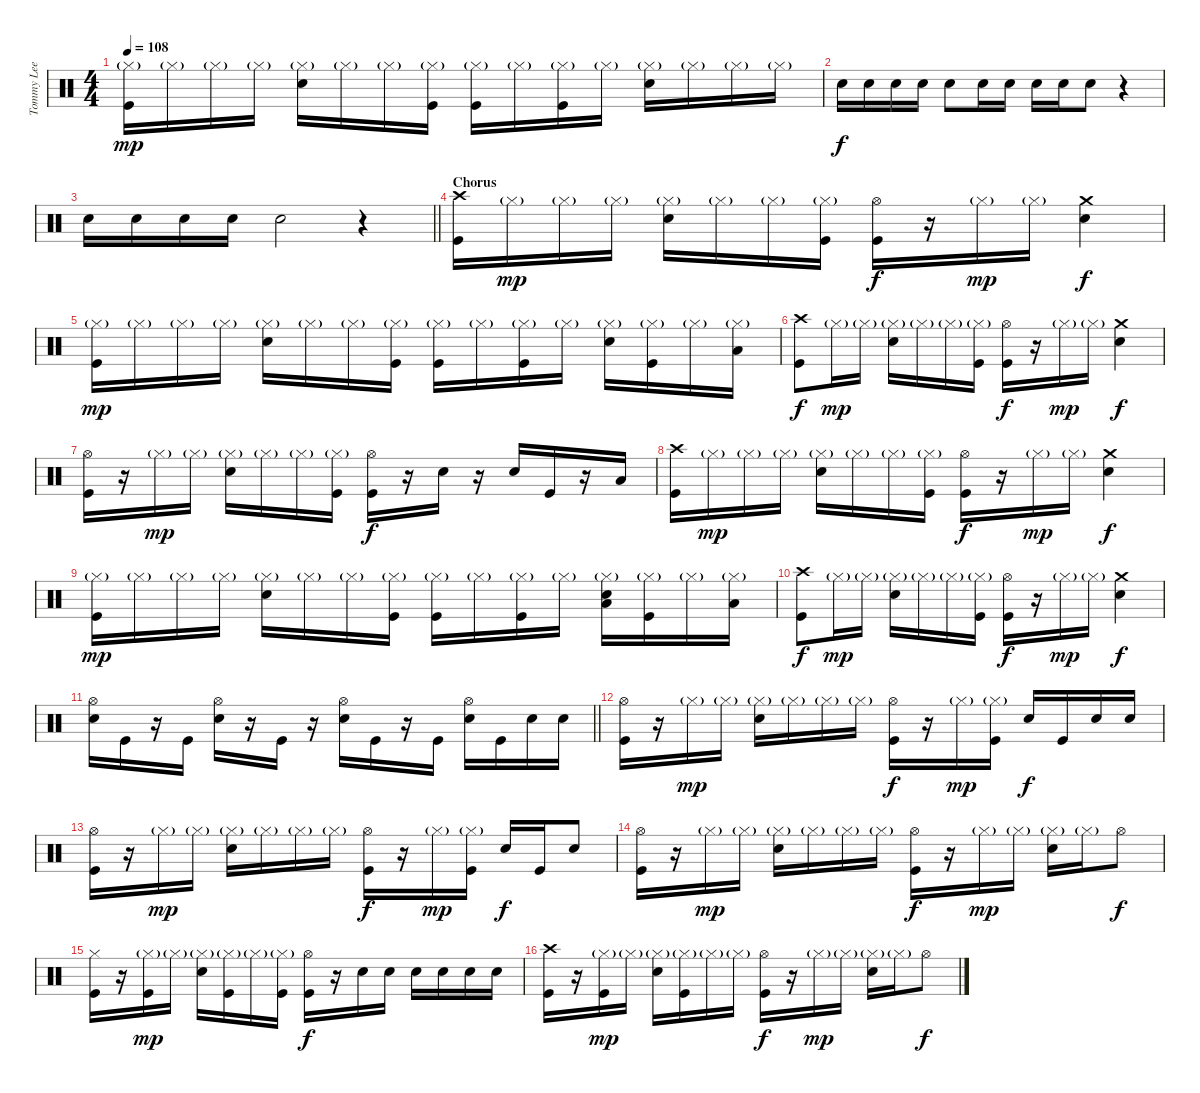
\track ("Tommy Lee" "Tommy Lee") {instrument percussion}
\staff {score}
\articulation defaults
\ts (4 4)
\tempo 108
\clef neutral
\ks c
("Hi-Hat (closed)"{g} "Kick (hit)").16{dy mp} "Hi-Hat (closed)"{g}.16 "Hi-Hat (closed)"{g}.16 "Hi-Hat (closed)"{g}.16 ("Hi-Hat (closed)"{g} "Snare (hit) 2").16 "Hi-Hat (closed)"{g}.16 "Hi-Hat (closed)"{g}.16 ("Hi-Hat (closed)"{g} "Kick (hit)").16 ("Hi-Hat (closed)"{g} "Kick (hit)").16 "Hi-Hat (closed)"{g}.16 ("Hi-Hat (closed)"{g} "Kick (hit)").16 "Hi-Hat (closed)"{g}.16 ("Hi-Hat (closed)"{g} "Snare (hit) 2").16 "Hi-Hat (closed)"{g}.16 "Hi-Hat (closed)"{g}.16 "Hi-Hat (closed)"{g}.16 |
"Snare (hit) 2".16{dy f} "Snare (hit) 2".16 "Snare (hit) 2".16 "Snare (hit) 2".16 "Snare (hit) 2".8 "Snare (hit) 2".16 "Snare (hit) 2".16 "Snare (hit) 2".16 "Snare (hit) 2".16 "Snare (hit) 2".8 r.4 |
\barLineRight lightlight "Snare (hit) 2".16 "Snare (hit) 2".16 "Snare (hit) 2".16 "Snare (hit) 2".16 "Snare (hit) 2".2
r.4 |
\section ("" "Chorus")
("Crash high (hit)" "Kick (hit)").16 "Hi-Hat (closed)"{g}.16{dy mp} "Hi-Hat (closed)"{g}.16 "Hi-Hat (closed)"{g}.16 ("Hi-Hat (closed)"{g} "Snare (hit) 2").16 "Hi-Hat (closed)"{g}.16 "Hi-Hat (closed)"{g}.16 ("Hi-Hat (closed)"{g} "Kick (hit)").16 ("Hi-Hat (open)" "Kick (hit)").16{dy f} r.16 "Hi-Hat (closed)"{g}.16{dy mp} "Hi-Hat (closed)"{g}.16 ("Crash medium (hit)" "Snare (hit) 2").4{dy f} |
("Hi-Hat (closed)"{g} "Kick (hit)").16{dy mp} "Hi-Hat (closed)"{g}.16 "Hi-Hat (closed)"{g}.16 "Hi-Hat (closed)"{g}.16 ("Hi-Hat (closed)"{g} "Snare (hit) 2").16 "Hi-Hat (closed)"{g}.16 "Hi-Hat (closed)"{g}.16 ("Hi-Hat (closed)"{g} "Kick (hit)").16 ("Hi-Hat (closed)"{g} "Kick (hit)").16 "Hi-Hat (closed)"{g}.16 ("Hi-Hat (closed)"{g} "Kick (hit)").16 "Hi-Hat (closed)"{g}.16 ("Hi-Hat (closed)"{g} "Snare (hit) 2").16 ("Hi-Hat (closed)"{g} "Kick (hit)").16 "Hi-Hat (closed)"{g}.16 ("Hi-Hat (closed)"{g} "Low Tom (hit)").16 |
("Crash high (hit)" "Kick (hit)").8{dy f} "Hi-Hat (closed)"{g}.16{dy mp} "Hi-Hat (closed)"{g}.16 ("Hi-Hat (closed)"{g} "Snare (hit) 2").16 "Hi-Hat (closed)"{g}.16 "Hi-Hat (closed)"{g}.16 ("Hi-Hat (closed)"{g} "Kick (hit)").16 ("Hi-Hat (open)" "Kick (hit)").16{dy f} r.16 "Hi-Hat (closed)"{g}.16{dy mp} "Hi-Hat (closed)"{g}.16 ("Crash medium (hit)" "Snare (hit) 2").4{dy f} |
("Hi-Hat (open)" "Kick (hit)").16 r.16 "Hi-Hat (closed)"{g}.16{dy mp} "Hi-Hat (closed)"{g}.16 ("Hi-Hat (closed)"{g} "Snare (hit) 2").16 "Hi-Hat (closed)"{g}.16 "Hi-Hat (closed)"{g}.16 ("Hi-Hat (closed)"{g} "Kick (hit)").16 ("Hi-Hat (open)" "Kick (hit)").16{dy f} r.16 "Snare (hit) 2".16 r.16 "Snare (hit) 2".16 "Kick (hit)".16 r.16 "Low Tom (hit)".16 |
("Crash high (hit)" "Kick (hit)").16 "Hi-Hat (closed)"{g}.16{dy mp} "Hi-Hat (closed)"{g}.16 "Hi-Hat (closed)"{g}.16 ("Hi-Hat (closed)"{g} "Snare (hit) 2").16 "Hi-Hat (closed)"{g}.16 "Hi-Hat (closed)"{g}.16 ("Hi-Hat (closed)"{g} "Kick (hit)").16 ("Hi-Hat (open)" "Kick (hit)").16{dy f} r.16 "Hi-Hat (closed)"{g}.16{dy mp} "Hi-Hat (closed)"{g}.16 ("Crash medium (hit)" "Snare (hit) 2").4{dy f} |
("Hi-Hat (closed)"{g} "Kick (hit)").16{dy mp} "Hi-Hat (closed)"{g}.16 "Hi-Hat (closed)"{g}.16 "Hi-Hat (closed)"{g}.16 ("Hi-Hat (closed)"{g} "Snare (hit) 2").16 "Hi-Hat (closed)"{g}.16 "Hi-Hat (closed)"{g}.16 ("Hi-Hat (closed)"{g} "Kick (hit)").16 ("Hi-Hat (closed)"{g} "Kick (hit)").16 "Hi-Hat (closed)"{g}.16 ("Hi-Hat (closed)"{g} "Kick (hit)").16 "Hi-Hat (closed)"{g}.16 ("Hi-Hat (closed)"{g} "Low Tom (hit)" "Snare (hit) 2").16 ("Hi-Hat (closed)"{g} "Kick (hit)").16 "Hi-Hat (closed)"{g}.16 ("Hi-Hat (closed)"{g} "Low Tom (hit)").16 |
("Crash high (hit)" "Kick (hit)").8{dy f} "Hi-Hat (closed)"{g}.16{dy mp} "Hi-Hat (closed)"{g}.16 ("Hi-Hat (closed)"{g} "Snare (hit) 2").16 "Hi-Hat (closed)"{g}.16 "Hi-Hat (closed)"{g}.16 ("Hi-Hat (closed)"{g} "Kick (hit)").16 ("Hi-Hat (open)" "Kick (hit)").16{dy f} r.16 "Hi-Hat (closed)"{g}.16{dy mp} "Hi-Hat (closed)"{g}.16 ("Crash medium (hit)" "Snare (hit) 2").4{dy f} |
\barLineRight lightlight
("Hi-Hat (open)" "Snare (hit) 2").16 "Kick (hit)".16 r.16 "Kick (hit)".16 ("Hi-Hat (open)" "Snare (hit) 2").16 r.16 "Kick (hit)".16 r.16 ("Hi-Hat (open)" "Snare (hit) 2").16 "Kick (hit)".16 r.16 "Kick (hit)".16 ("Hi-Hat (open)" "Snare (hit) 2").16 "Kick (hit)".16 "Snare (hit) 2".16 "Snare (hit) 2".16 |
("Hi-Hat (open)" "Kick (hit)").16 r.16 "Hi-Hat (closed)"{g}.16{dy mp} "Hi-Hat (closed)"{g}.16 ("Hi-Hat (closed)"{g} "Snare (hit) 2").16 "Hi-Hat (closed)"{g}.16 "Hi-Hat (closed)"{g}.16 "Hi-Hat (closed)"{g}.16 ("Hi-Hat (open)" "Kick (hit)").16{dy f} r.16 "Hi-Hat (closed)"{g}.16{dy mp} ("Hi-Hat (closed)"{g} "Kick (hit)").16 "Snare (hit) 2".16{dy f} "Kick (hit)".16 "Snare (hit) 2".16 "Snare (hit) 2".16 |
("Hi-Hat (open)" "Kick (hit)").16 r.16 "Hi-Hat (closed)"{g}.16{dy mp} "Hi-Hat (closed)"{g}.16 ("Hi-Hat (closed)"{g} "Snare (hit) 2").16 "Hi-Hat (closed)"{g}.16 "Hi-Hat (closed)"{g}.16 "Hi-Hat (closed)"{g}.16 ("Hi-Hat (open)" "Kick (hit)").16{dy f} r.16 "Hi-Hat (closed)"{g}.16{dy mp} ("Hi-Hat (closed)"{g} "Kick (hit)").16 "Snare (hit) 2".16{dy f} "Kick (hit)".16 "Snare (hit) 2".8 |
("Hi-Hat (open)" "Kick (hit)").16 r.16 "Hi-Hat (closed)"{g}.16{dy mp} "Hi-Hat (closed)"{g}.16 ("Hi-Hat (closed)"{g} "Snare (hit) 2").16 "Hi-Hat (closed)"{g}.16 "Hi-Hat (closed)"{g}.16 "Hi-Hat (closed)"{g}.16 ("Hi-Hat (open)" "Kick (hit)").16{dy f} r.16 "Hi-Hat (closed)"{g}.16{dy mp} "Hi-Hat (closed)"{g}.16 ("Hi-Hat (closed)"{g} "Snare (hit) 2").16 "Hi-Hat (closed)"{g}.16 "Hi-Hat (open)".8{dy f} |
("Hi-Hat (closed)" "Kick (hit)").16 r.16 ("Hi-Hat (closed)"{g} "Kick (hit)").16{dy mp} "Hi-Hat (closed)"{g}.16 ("Hi-Hat (closed)"{g} "Snare (hit) 2").16 ("Hi-Hat (closed)"{g} "Kick (hit)").16 "Hi-Hat (closed)"{g}.16 ("Hi-Hat (closed)"{g} "Kick (hit)").16 ("Hi-Hat (open)" "Kick (hit)").16{dy f} r.16 "Snare (hit) 2".16 "Snare (hit) 2".16 "Snare (hit) 2".16 "Snare (hit) 2".16 "Snare (hit) 2".16 "Snare (hit) 2".16 |
("Crash high (hit)" "Kick (hit)").16 r.16 ("Hi-Hat (closed)"{g} "Kick (hit)").16{dy mp} "Hi-Hat (closed)"{g}.16 ("Hi-Hat (closed)"{g} "Snare (hit) 2").16 ("Hi-Hat (closed)"{g} "Kick (hit)").16 "Hi-Hat (closed)"{g}.16 "Hi-Hat (closed)"{g}.16 ("Hi-Hat (open)" "Kick (hit)").16{dy f} r.16 "Hi-Hat (closed)"{g}.16{dy mp} "Hi-Hat (closed)"{g}.16 ("Hi-Hat (closed)"{g} "Snare (hit) 2").16 "Hi-Hat (closed)"{g}.16 "Hi-Hat (open)".8{dy f}
